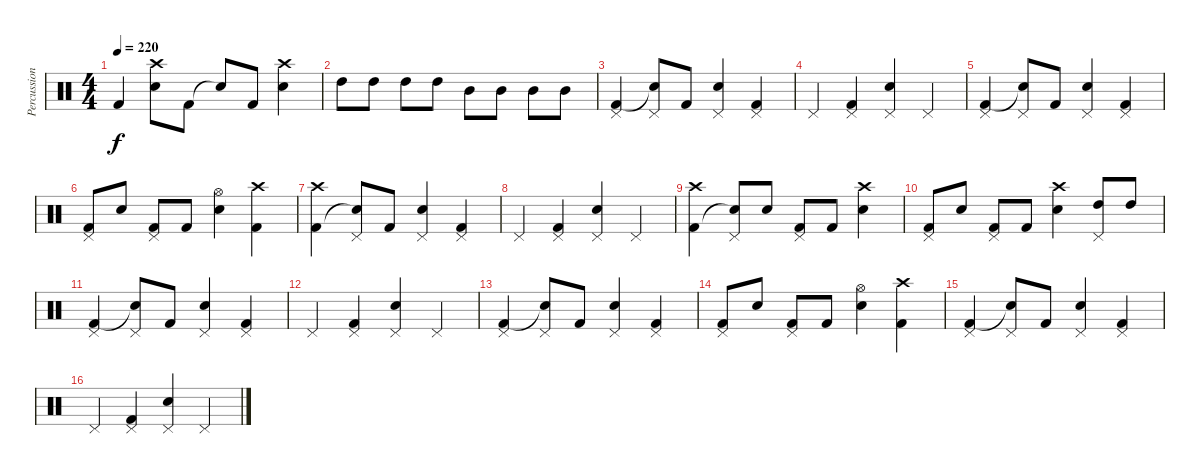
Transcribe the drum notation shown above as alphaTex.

\track ("Percussion" "Percussion") {instrument percussion}
\staff {score}
\articulation defaults
\ts (4 4)
\tempo 220
\clef neutral
\ks c "Kick (hit) 2".4{dy f}
("Crash high (hit)" "Snare (hit) 2").8 "Kick (hit) 2".8 "Snare (hit)"{t}.8 "Kick (hit) 2".8 ("Crash high (hit)" "Snare (hit) 2").4 |
"High Tom (hit)".8 "High Tom (hit)".8 "High Tom (hit)".8 "High Tom (hit)".8 "Mid Tom (hit)".8 "Mid Tom (hit)".8 "Mid Tom (hit)".8 "Mid Tom (hit)".8 |
("Pedal Hi-Hat (hit)" "Kick (hit) 2").4 ("Pedal Hi-Hat (hit)" "Snare (hit)"{t}).8 "Kick (hit) 2".8 ("Pedal Hi-Hat (hit)" "Snare (hit) 2").4 ("Pedal Hi-Hat (hit)" "Kick (hit) 2").4 |
"Pedal Hi-Hat (hit)".4 ("Pedal Hi-Hat (hit)" "Kick (hit) 2").4 ("Pedal Hi-Hat (hit)" "Snare (hit) 2").4 "Pedal Hi-Hat (hit)".4 |
("Pedal Hi-Hat (hit)" "Kick (hit) 2").4 ("Pedal Hi-Hat (hit)" "Snare (hit)"{t}).8 "Kick (hit) 2".8 ("Pedal Hi-Hat (hit)" "Snare (hit) 2").4 ("Pedal Hi-Hat (hit)" "Kick (hit) 2").4 |
("Pedal Hi-Hat (hit)" "Kick (hit) 2").8 "Snare (hit) 2".8 ("Pedal Hi-Hat (hit)" "Kick (hit) 2").8 "Kick (hit) 2".8 ("Hi-Hat (open)" "Snare (hit) 2").4 ("Crash high (hit)" "Kick (hit) 2").4 |
("Crash high (hit)" "Kick (hit) 2").4 ("Pedal Hi-Hat (hit)" "Snare (hit)"{t}).8 "Kick (hit) 2".8 ("Pedal Hi-Hat (hit)" "Snare (hit) 2").4 ("Pedal Hi-Hat (hit)" "Kick (hit) 2").4 |
"Pedal Hi-Hat (hit)".4 ("Pedal Hi-Hat (hit)" "Kick (hit) 2").4 ("Pedal Hi-Hat (hit)" "Snare (hit) 2").4 "Pedal Hi-Hat (hit)".4 |
("Crash high (hit)" "Kick (hit) 2").4 ("Pedal Hi-Hat (hit)" "Snare (hit)"{t}).8 "Snare (hit) 2".8 ("Pedal Hi-Hat (hit)" "Kick (hit) 2").8 "Kick (hit) 2".8 ("Crash high (hit)" "Snare (hit) 2").4 |
("Pedal Hi-Hat (hit)" "Kick (hit) 2").8 "Snare (hit) 2".8 ("Pedal Hi-Hat (hit)" "Kick (hit) 2").8 "Kick (hit) 2".8 ("Crash high (hit)" "Snare (hit) 2").4 ("Pedal Hi-Hat (hit)" "High Tom (hit)").8 "High Tom (hit)".8 |
("Pedal Hi-Hat (hit)" "Kick (hit) 2").4 ("Pedal Hi-Hat (hit)" "Snare (hit)"{t}).8 "Kick (hit) 2".8 ("Pedal Hi-Hat (hit)" "Snare (hit) 2").4 ("Pedal Hi-Hat (hit)" "Kick (hit) 2").4 |
"Pedal Hi-Hat (hit)".4 ("Pedal Hi-Hat (hit)" "Kick (hit) 2").4 ("Pedal Hi-Hat (hit)" "Snare (hit) 2").4 "Pedal Hi-Hat (hit)".4 |
("Pedal Hi-Hat (hit)" "Kick (hit) 2").4 ("Pedal Hi-Hat (hit)" "Snare (hit)"{t}).8 "Kick (hit) 2".8 ("Pedal Hi-Hat (hit)" "Snare (hit) 2").4 ("Pedal Hi-Hat (hit)" "Kick (hit) 2").4 |
("Pedal Hi-Hat (hit)" "Kick (hit) 2").8 "Snare (hit) 2".8 ("Pedal Hi-Hat (hit)" "Kick (hit) 2").8 "Kick (hit) 2".8 ("Hi-Hat (open)" "Snare (hit) 2").4 ("Crash high (hit)" "Kick (hit) 2").4 |
("Pedal Hi-Hat (hit)" "Kick (hit) 2").4 ("Pedal Hi-Hat (hit)" "Snare (hit)"{t}).8 "Kick (hit) 2".8 ("Pedal Hi-Hat (hit)" "Snare (hit) 2").4 ("Pedal Hi-Hat (hit)" "Kick (hit) 2").4 |
"Pedal Hi-Hat (hit)".4 ("Pedal Hi-Hat (hit)" "Kick (hit) 2").4 ("Pedal Hi-Hat (hit)" "Snare (hit) 2").4 "Pedal Hi-Hat (hit)".4
